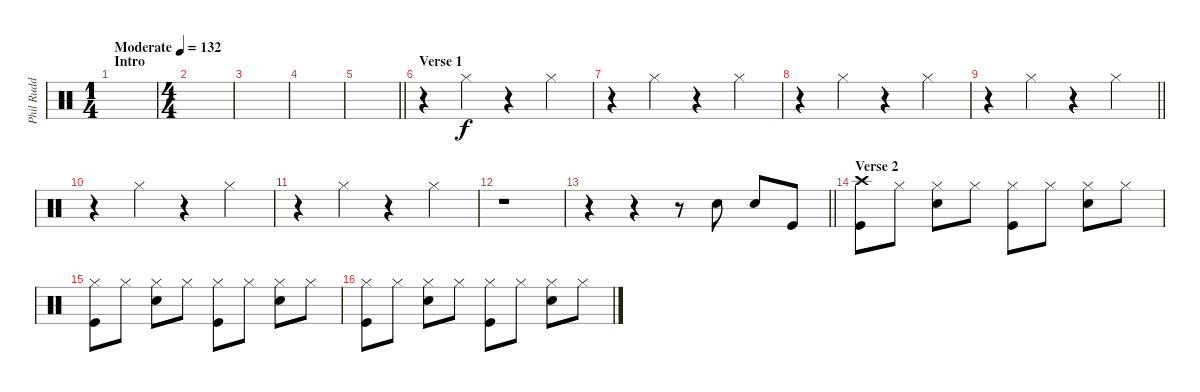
\track ("Phil Rudd" "Phil Rudd") {instrument percussion}
\staff {score}
\articulation defaults
\ts (1 4)
\section ("" "Intro")
\tempo (132 "Moderate")
\clef neutral
\ks c
|
\ts (4 4)
|
|
|
\barLineRight lightlight
|
\section ("" "Verse 1")
r.4 "Hi-Hat (closed)".4 r.4 "Hi-Hat (closed)".4 |
r.4 "Hi-Hat (closed)".4 r.4 "Hi-Hat (closed)".4 |
r.4 "Hi-Hat (closed)".4 r.4 "Hi-Hat (closed)".4 |
\barLineRight lightlight
r.4 "Hi-Hat (closed)".4 r.4 "Hi-Hat (closed)".4 |
r.4 "Hi-Hat (closed)".4 r.4 "Hi-Hat (closed)".4 |
r.4 "Hi-Hat (closed)".4 r.4 "Hi-Hat (closed)".4 |
r.1 |
\barLineRight lightlight
r.4 r.4 r.8 "Snare (hit) 2".8 "Snare (hit) 2".8 "Kick (hit)".8 |
\section ("" "Verse 2")
("Crash high (hit)" "Kick (hit)").8 "Hi-Hat (closed)".8 ("Hi-Hat (closed)" "Snare (hit) 2").8 "Hi-Hat (closed)".8 ("Hi-Hat (closed)" "Kick (hit)").8 "Hi-Hat (closed)".8 ("Hi-Hat (closed)" "Snare (hit) 2").8 "Hi-Hat (closed)".8 |
("Hi-Hat (closed)" "Kick (hit)").8 "Hi-Hat (closed)".8 ("Hi-Hat (closed)" "Snare (hit) 2").8 "Hi-Hat (closed)".8 ("Hi-Hat (closed)" "Kick (hit)").8 "Hi-Hat (closed)".8 ("Hi-Hat (closed)" "Snare (hit) 2").8 "Hi-Hat (closed)".8 |
("Hi-Hat (closed)" "Kick (hit)").8 "Hi-Hat (closed)".8 ("Hi-Hat (closed)" "Snare (hit) 2").8 "Hi-Hat (closed)".8 ("Hi-Hat (closed)" "Kick (hit)").8 "Hi-Hat (closed)".8 ("Hi-Hat (closed)" "Snare (hit) 2").8 "Hi-Hat (closed)".8
